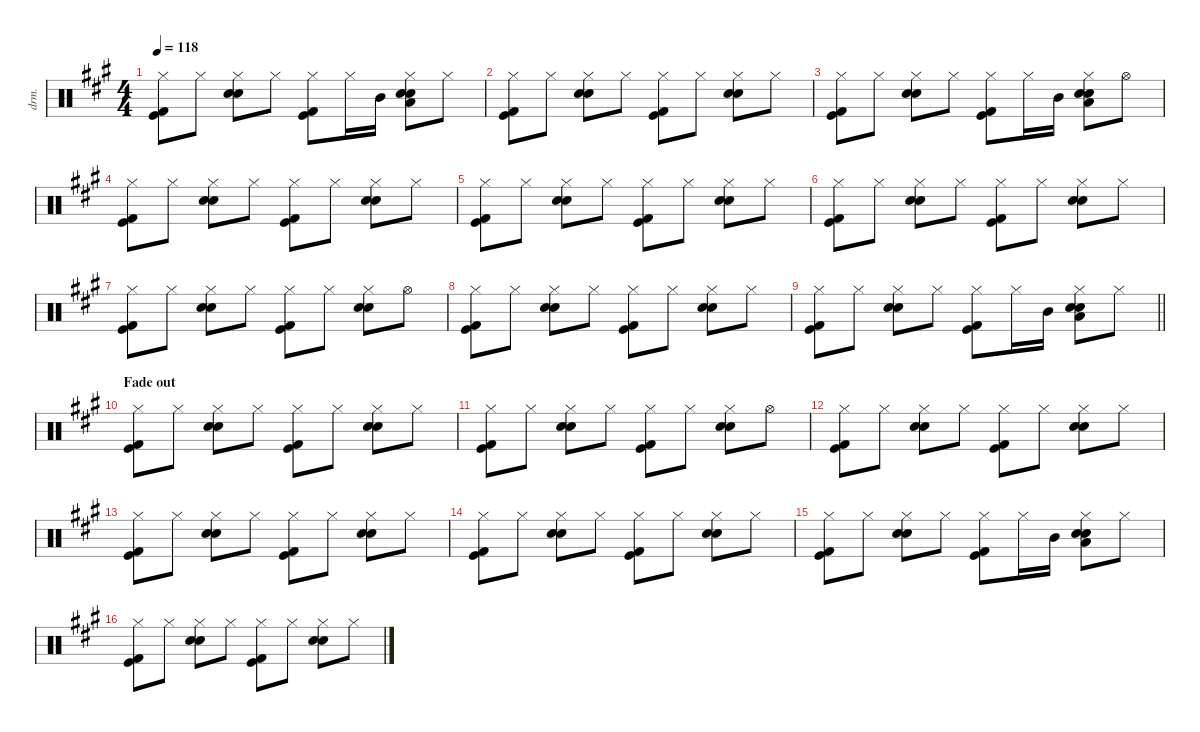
\defaultSystemsLayout 4
\hideDynamics
\bracketExtendMode nobrackets
\otherSystemsTrackNameOrientation horizontal
\track ("drums" "drm.") {instrument percussion}
\staff {score}
\articulation defaults
\ts (4 4)
\tempo 118
\clef neutral
\ks f#minor
("Hi-Hat (closed)"{acc forcenatural} "Kick (hit)"{acc forcenatural} "Kick (hit) 2"{acc forcenatural}).8{dy f} "Hi-Hat (closed)"{acc forcenatural}.8{dy mf} ("Hi-Hat (closed)"{acc forcenatural} "Hand Clap (hit)"{acc forcenatural} "Snare (hit) 2"{acc forcenatural}).8{dy f} "Hi-Hat (closed)"{acc forcenatural}.8{dy mf} ("Hi-Hat (closed)"{acc forcenatural} "Kick (hit)"{acc forcenatural} "Kick (hit) 2"{acc forcenatural}).8{dy f} "Hi-Hat (closed)"{acc forcenatural}.16{dy mf} "Mid Tom (hit)"{acc forcenatural}.16 ("Hi-Hat (closed)"{acc forcenatural} "Hand Clap (hit)"{acc forcenatural} "Snare (hit) 2"{acc forcenatural} "Low Tom (hit)"{acc forcenatural}).8{dy f} "Hi-Hat (closed)"{acc forcenatural}.8{dy mf} |
("Hi-Hat (closed)"{acc forcenatural} "Kick (hit)"{acc forcenatural} "Kick (hit) 2"{acc forcenatural}).8{dy f} "Hi-Hat (closed)"{acc forcenatural}.8{dy mf} ("Hi-Hat (closed)"{acc forcenatural} "Hand Clap (hit)"{acc forcenatural} "Snare (hit) 2"{acc forcenatural}).8{dy f} "Hi-Hat (closed)"{acc forcenatural}.8{dy mf} ("Hi-Hat (closed)"{acc forcenatural} "Kick (hit)"{acc forcenatural} "Kick (hit) 2"{acc forcenatural}).8{dy f} "Hi-Hat (closed)"{acc forcenatural}.8{dy mf} ("Hi-Hat (closed)"{acc forcenatural} "Hand Clap (hit)"{acc forcenatural} "Snare (hit) 2"{acc forcenatural}).8{dy f} "Hi-Hat (closed)"{acc forcenatural}.8{dy mf} |
("Hi-Hat (closed)"{acc forcenatural} "Kick (hit)"{acc forcenatural} "Kick (hit) 2"{acc forcenatural}).8{dy f} "Hi-Hat (closed)"{acc forcenatural}.8{dy mf} ("Hi-Hat (closed)"{acc forcenatural} "Hand Clap (hit)"{acc forcenatural} "Snare (hit) 2"{acc forcenatural}).8{dy f} "Hi-Hat (closed)"{acc forcenatural}.8{dy mf} ("Hi-Hat (closed)"{acc forcenatural} "Kick (hit)"{acc forcenatural} "Kick (hit) 2"{acc forcenatural}).8{dy f} "Hi-Hat (closed)"{acc forcenatural}.16{dy mf} "Mid Tom (hit)"{acc forcenatural}.16 ("Hi-Hat (closed)"{acc forcenatural} "Hand Clap (hit)"{acc forcenatural} "Snare (hit) 2"{acc forcenatural} "Low Tom (hit)"{acc forcenatural}).8{dy f} "Hi-Hat (open)"{acc forcenatural}.8 |
("Hi-Hat (closed)"{acc forcenatural} "Kick (hit)"{acc forcenatural} "Kick (hit) 2"{acc forcenatural}).8 "Hi-Hat (closed)"{acc forcenatural}.8{dy mf} ("Hi-Hat (closed)"{acc forcenatural} "Hand Clap (hit)"{acc forcenatural} "Snare (hit) 2"{acc forcenatural}).8{dy f} "Hi-Hat (closed)"{acc forcenatural}.8{dy mf} ("Hi-Hat (closed)"{acc forcenatural} "Kick (hit)"{acc forcenatural} "Kick (hit) 2"{acc forcenatural}).8{dy f} "Hi-Hat (closed)"{acc forcenatural}.8{dy mf} ("Hi-Hat (closed)"{acc forcenatural} "Hand Clap (hit)"{acc forcenatural} "Snare (hit) 2"{acc forcenatural}).8{dy f} "Hi-Hat (closed)"{acc forcenatural}.8{dy mf} |
("Hi-Hat (closed)"{acc forcenatural} "Kick (hit)"{acc forcenatural} "Kick (hit) 2"{acc forcenatural}).8{dy f} "Hi-Hat (closed)"{acc forcenatural}.8{dy mf} ("Hi-Hat (closed)"{acc forcenatural} "Hand Clap (hit)"{acc forcenatural} "Snare (hit) 2"{acc forcenatural}).8{dy f} "Hi-Hat (closed)"{acc forcenatural}.8{dy mf} ("Hi-Hat (closed)"{acc forcenatural} "Kick (hit)"{acc forcenatural} "Kick (hit) 2"{acc forcenatural}).8{dy f} "Hi-Hat (closed)"{acc forcenatural}.8{dy mf} ("Hi-Hat (closed)"{acc forcenatural} "Hand Clap (hit)"{acc forcenatural} "Snare (hit) 2"{acc forcenatural}).8{dy f} "Hi-Hat (closed)"{acc forcenatural}.8{dy mf} |
("Hi-Hat (closed)"{acc forcenatural} "Kick (hit)"{acc forcenatural} "Kick (hit) 2"{acc forcenatural}).8{dy f} "Hi-Hat (closed)"{acc forcenatural}.8{dy mf} ("Hi-Hat (closed)"{acc forcenatural} "Hand Clap (hit)"{acc forcenatural} "Snare (hit) 2"{acc forcenatural}).8{dy f} "Hi-Hat (closed)"{acc forcenatural}.8{dy mf} ("Hi-Hat (closed)"{acc forcenatural} "Kick (hit)"{acc forcenatural} "Kick (hit) 2"{acc forcenatural}).8{dy f} "Hi-Hat (closed)"{acc forcenatural}.8{dy mf} ("Hi-Hat (closed)"{acc forcenatural} "Hand Clap (hit)"{acc forcenatural} "Snare (hit) 2"{acc forcenatural}).8{dy f} "Hi-Hat (closed)"{acc forcenatural}.8{dy mf} |
("Hi-Hat (closed)"{acc forcenatural} "Kick (hit)"{acc forcenatural} "Kick (hit) 2"{acc forcenatural}).8{dy f} "Hi-Hat (closed)"{acc forcenatural}.8{dy mf} ("Hi-Hat (closed)"{acc forcenatural} "Hand Clap (hit)"{acc forcenatural} "Snare (hit) 2"{acc forcenatural}).8{dy f} "Hi-Hat (closed)"{acc forcenatural}.8{dy mf} ("Hi-Hat (closed)"{acc forcenatural} "Kick (hit)"{acc forcenatural} "Kick (hit) 2"{acc forcenatural}).8{dy f} "Hi-Hat (closed)"{acc forcenatural}.8{dy mf} ("Hi-Hat (closed)"{acc forcenatural} "Hand Clap (hit)"{acc forcenatural} "Snare (hit) 2"{acc forcenatural}).8{dy f} "Hi-Hat (open)"{acc forcenatural}.8 |
("Hi-Hat (closed)"{acc forcenatural} "Kick (hit)"{acc forcenatural} "Kick (hit) 2"{acc forcenatural}).8 "Hi-Hat (closed)"{acc forcenatural}.8{dy mf} ("Hi-Hat (closed)"{acc forcenatural} "Hand Clap (hit)"{acc forcenatural} "Snare (hit) 2"{acc forcenatural}).8{dy f} "Hi-Hat (closed)"{acc forcenatural}.8{dy mf} ("Hi-Hat (closed)"{acc forcenatural} "Kick (hit)"{acc forcenatural} "Kick (hit) 2"{acc forcenatural}).8{dy f} "Hi-Hat (closed)"{acc forcenatural}.8{dy mf} ("Hi-Hat (closed)"{acc forcenatural} "Hand Clap (hit)"{acc forcenatural} "Snare (hit) 2"{acc forcenatural}).8{dy f} "Hi-Hat (closed)"{acc forcenatural}.8{dy mf} |
\barLineRight lightlight
("Hi-Hat (closed)"{acc forcenatural} "Kick (hit)"{acc forcenatural} "Kick (hit) 2"{acc forcenatural}).8{dy f} "Hi-Hat (closed)"{acc forcenatural}.8{dy mf} ("Hi-Hat (closed)"{acc forcenatural} "Hand Clap (hit)"{acc forcenatural} "Snare (hit) 2"{acc forcenatural}).8{dy f} "Hi-Hat (closed)"{acc forcenatural}.8{dy mf} ("Hi-Hat (closed)"{acc forcenatural} "Kick (hit)"{acc forcenatural} "Kick (hit) 2"{acc forcenatural}).8{dy f} "Hi-Hat (closed)"{acc forcenatural}.16{dy mf} "Mid Tom (hit)"{acc forcenatural}.16 ("Hi-Hat (closed)"{acc forcenatural} "Hand Clap (hit)"{acc forcenatural} "Snare (hit) 2"{acc forcenatural} "Low Tom (hit)"{acc forcenatural}).8{dy f} "Hi-Hat (closed)"{acc forcenatural}.8{dy mf} |
\section ("" "Fade out")
("Hi-Hat (closed)"{acc forcenatural} "Kick (hit)"{acc forcenatural} "Kick (hit) 2"{acc forcenatural}).8{dy f} "Hi-Hat (closed)"{acc forcenatural}.8{dy mf} ("Hi-Hat (closed)"{acc forcenatural} "Hand Clap (hit)"{acc forcenatural} "Snare (hit) 2"{acc forcenatural}).8{dy f} "Hi-Hat (closed)"{acc forcenatural}.8{dy mf} ("Hi-Hat (closed)"{acc forcenatural} "Kick (hit)"{acc forcenatural} "Kick (hit) 2"{acc forcenatural}).8{dy f} "Hi-Hat (closed)"{acc forcenatural}.8{dy mf} ("Hi-Hat (closed)"{acc forcenatural} "Hand Clap (hit)"{acc forcenatural} "Snare (hit) 2"{acc forcenatural}).8{dy f} "Hi-Hat (closed)"{acc forcenatural}.8{dy mf} |
("Hi-Hat (closed)"{acc forcenatural} "Kick (hit)"{acc forcenatural} "Kick (hit) 2"{acc forcenatural}).8{dy f} "Hi-Hat (closed)"{acc forcenatural}.8{dy mf} ("Hi-Hat (closed)"{acc forcenatural} "Hand Clap (hit)"{acc forcenatural} "Snare (hit) 2"{acc forcenatural}).8{dy f} "Hi-Hat (closed)"{acc forcenatural}.8{dy mf} ("Hi-Hat (closed)"{acc forcenatural} "Kick (hit)"{acc forcenatural} "Kick (hit) 2"{acc forcenatural}).8{dy f} "Hi-Hat (closed)"{acc forcenatural}.8{dy mf} ("Hi-Hat (closed)"{acc forcenatural} "Hand Clap (hit)"{acc forcenatural} "Snare (hit) 2"{acc forcenatural}).8{dy f} "Hi-Hat (open)"{acc forcenatural}.8 |
("Hi-Hat (closed)"{acc forcenatural} "Kick (hit)"{acc forcenatural} "Kick (hit) 2"{acc forcenatural}).8 "Hi-Hat (closed)"{acc forcenatural}.8{dy mf} ("Hi-Hat (closed)"{acc forcenatural} "Hand Clap (hit)"{acc forcenatural} "Snare (hit) 2"{acc forcenatural}).8{dy f} "Hi-Hat (closed)"{acc forcenatural}.8{dy mf} ("Hi-Hat (closed)"{acc forcenatural} "Kick (hit)"{acc forcenatural} "Kick (hit) 2"{acc forcenatural}).8{dy f} "Hi-Hat (closed)"{acc forcenatural}.8{dy mf} ("Hi-Hat (closed)"{acc forcenatural} "Hand Clap (hit)"{acc forcenatural} "Snare (hit) 2"{acc forcenatural}).8{dy f} "Hi-Hat (closed)"{acc forcenatural}.8{dy mf} |
("Hi-Hat (closed)"{acc forcenatural} "Kick (hit)"{acc forcenatural} "Kick (hit) 2"{acc forcenatural}).8{dy f} "Hi-Hat (closed)"{acc forcenatural}.8{dy mf} ("Hi-Hat (closed)"{acc forcenatural} "Hand Clap (hit)"{acc forcenatural} "Snare (hit) 2"{acc forcenatural}).8{dy f} "Hi-Hat (closed)"{acc forcenatural}.8{dy mf} ("Hi-Hat (closed)"{acc forcenatural} "Kick (hit)"{acc forcenatural} "Kick (hit) 2"{acc forcenatural}).8{dy f} "Hi-Hat (closed)"{acc forcenatural}.8{dy mf} ("Hi-Hat (closed)"{acc forcenatural} "Hand Clap (hit)"{acc forcenatural} "Snare (hit) 2"{acc forcenatural}).8{dy f} "Hi-Hat (closed)"{acc forcenatural}.8{dy mf} |
("Hi-Hat (closed)"{acc forcenatural} "Kick (hit)"{acc forcenatural} "Kick (hit) 2"{acc forcenatural}).8{dy f} "Hi-Hat (closed)"{acc forcenatural}.8{dy mf} ("Hi-Hat (closed)"{acc forcenatural} "Hand Clap (hit)"{acc forcenatural} "Snare (hit) 2"{acc forcenatural}).8{dy f} "Hi-Hat (closed)"{acc forcenatural}.8{dy mf} ("Hi-Hat (closed)"{acc forcenatural} "Kick (hit)"{acc forcenatural} "Kick (hit) 2"{acc forcenatural}).8{dy f} "Hi-Hat (closed)"{acc forcenatural}.8{dy mf} ("Hi-Hat (closed)"{acc forcenatural} "Hand Clap (hit)"{acc forcenatural} "Snare (hit) 2"{acc forcenatural}).8{dy f} "Hi-Hat (closed)"{acc forcenatural}.8{dy mf} |
("Hi-Hat (closed)"{acc forcenatural} "Kick (hit)"{acc forcenatural} "Kick (hit) 2"{acc forcenatural}).8{dy f} "Hi-Hat (closed)"{acc forcenatural}.8{dy mf} ("Hi-Hat (closed)"{acc forcenatural} "Hand Clap (hit)"{acc forcenatural} "Snare (hit) 2"{acc forcenatural}).8{dy f} "Hi-Hat (closed)"{acc forcenatural}.8{dy mf} ("Hi-Hat (closed)"{acc forcenatural} "Kick (hit)"{acc forcenatural} "Kick (hit) 2"{acc forcenatural}).8{dy f} "Hi-Hat (closed)"{acc forcenatural}.16{dy mf} "Mid Tom (hit)"{acc forcenatural}.16 ("Hi-Hat (closed)"{acc forcenatural} "Hand Clap (hit)"{acc forcenatural} "Snare (hit) 2"{acc forcenatural} "Low Tom (hit)"{acc forcenatural}).8{dy f} "Hi-Hat (closed)"{acc forcenatural}.8{dy mf} |
("Hi-Hat (closed)"{acc forcenatural} "Kick (hit)"{acc forcenatural} "Kick (hit) 2"{acc forcenatural}).8{dy f} "Hi-Hat (closed)"{acc forcenatural}.8{dy mf} ("Hi-Hat (closed)"{acc forcenatural} "Hand Clap (hit)"{acc forcenatural} "Snare (hit) 2"{acc forcenatural}).8{dy f} "Hi-Hat (closed)"{acc forcenatural}.8{dy mf} ("Hi-Hat (closed)"{acc forcenatural} "Kick (hit)"{acc forcenatural} "Kick (hit) 2"{acc forcenatural}).8{dy f} "Hi-Hat (closed)"{acc forcenatural}.8{dy mf} ("Hi-Hat (closed)"{acc forcenatural} "Hand Clap (hit)"{acc forcenatural} "Snare (hit) 2"{acc forcenatural}).8{dy f} "Hi-Hat (closed)"{acc forcenatural}.8{dy mf}
